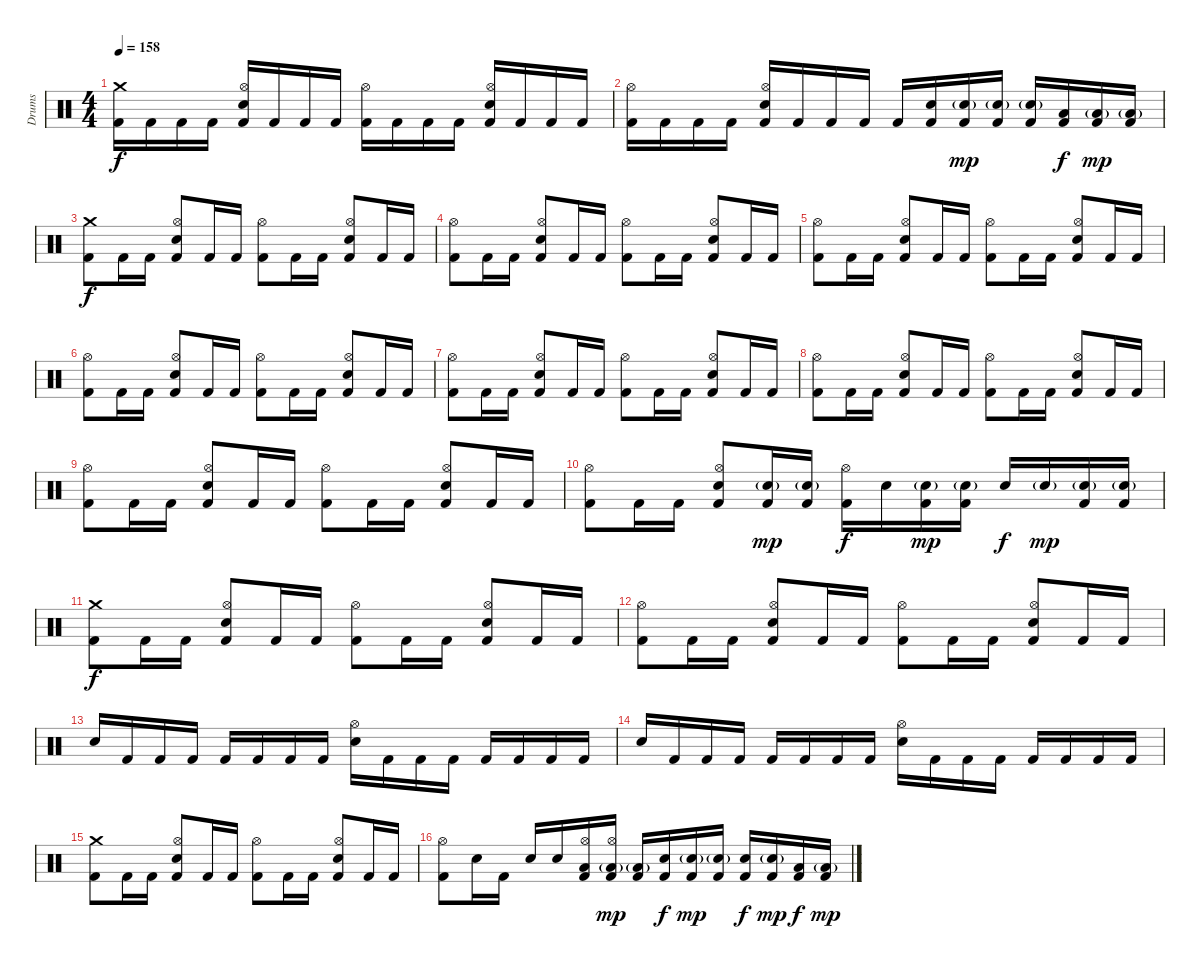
\track ("Drums" "Drums") {instrument percussion}
\staff {score}
\articulation defaults
\ts (4 4)
\tempo 158
\clef neutral
\ks c
("Crash medium (hit)" "Kick (hit) 2").16{dy f} "Kick (hit) 2".16 "Kick (hit) 2".16 "Kick (hit) 2".16 ("Hi-Hat (open)" "Electric Snare (hit)" "Kick (hit) 2").16 "Kick (hit) 2".16 "Kick (hit) 2".16 "Kick (hit) 2".16 ("Hi-Hat (open)" "Kick (hit) 2").16 "Kick (hit) 2".16 "Kick (hit) 2".16 "Kick (hit) 2".16 ("Hi-Hat (open)" "Electric Snare (hit)" "Kick (hit) 2").16 "Kick (hit) 2".16 "Kick (hit) 2".16 "Kick (hit) 2".16 |
\section ("" "")
("Hi-Hat (open)" "Kick (hit) 2").16 "Kick (hit) 2".16 "Kick (hit) 2".16 "Kick (hit) 2".16 ("Hi-Hat (open)" "Electric Snare (hit)" "Kick (hit) 2").16 "Kick (hit) 2".16 "Kick (hit) 2".16 "Kick (hit) 2".16 "Kick (hit) 2".16 ("Electric Snare (hit)" "Kick (hit) 2").16 ("Electric Snare (hit)"{g} "Kick (hit) 2").16{dy mp} ("Electric Snare (hit)"{g} "Kick (hit) 2").16 ("Electric Snare (hit)"{g} "Kick (hit) 2").16 ("Low Tom (hit)" "Kick (hit) 2").16{dy f} ("Low Tom (hit)"{g} "Kick (hit) 2").16{dy mp} ("Low Tom (hit)"{g} "Kick (hit) 2").16 |
("Crash medium (hit)" "Kick (hit) 2").8{dy f} "Kick (hit) 2".16 "Kick (hit) 2".16 ("Hi-Hat (open)" "Electric Snare (hit)" "Kick (hit) 2").8 "Kick (hit) 2".16 "Kick (hit) 2".16 ("Hi-Hat (open)" "Kick (hit) 2").8 "Kick (hit) 2".16 "Kick (hit) 2".16 ("Hi-Hat (open)" "Electric Snare (hit)" "Kick (hit) 2").8 "Kick (hit) 2".16 "Kick (hit) 2".16 |
("Hi-Hat (open)" "Kick (hit) 2").8 "Kick (hit) 2".16 "Kick (hit) 2".16 ("Hi-Hat (open)" "Electric Snare (hit)" "Kick (hit) 2").8 "Kick (hit) 2".16 "Kick (hit) 2".16 ("Hi-Hat (open)" "Kick (hit) 2").8 "Kick (hit) 2".16 "Kick (hit) 2".16 ("Hi-Hat (open)" "Electric Snare (hit)" "Kick (hit) 2").8 "Kick (hit) 2".16 "Kick (hit) 2".16 |
("Hi-Hat (open)" "Kick (hit) 2").8 "Kick (hit) 2".16 "Kick (hit) 2".16 ("Hi-Hat (open)" "Electric Snare (hit)" "Kick (hit) 2").8 "Kick (hit) 2".16 "Kick (hit) 2".16 ("Hi-Hat (open)" "Kick (hit) 2").8 "Kick (hit) 2".16 "Kick (hit) 2".16 ("Hi-Hat (open)" "Electric Snare (hit)" "Kick (hit) 2").8 "Kick (hit) 2".16 "Kick (hit) 2".16 |
("Hi-Hat (open)" "Kick (hit) 2").8 "Kick (hit) 2".16 "Kick (hit) 2".16 ("Hi-Hat (open)" "Electric Snare (hit)" "Kick (hit) 2").8 "Kick (hit) 2".16 "Kick (hit) 2".16 ("Hi-Hat (open)" "Kick (hit) 2").8 "Kick (hit) 2".16 "Kick (hit) 2".16 ("Hi-Hat (open)" "Electric Snare (hit)" "Kick (hit) 2").8 "Kick (hit) 2".16 "Kick (hit) 2".16 |
("Hi-Hat (open)" "Kick (hit) 2").8 "Kick (hit) 2".16 "Kick (hit) 2".16 ("Hi-Hat (open)" "Electric Snare (hit)" "Kick (hit) 2").8 "Kick (hit) 2".16 "Kick (hit) 2".16 ("Hi-Hat (open)" "Kick (hit) 2").8 "Kick (hit) 2".16 "Kick (hit) 2".16 ("Hi-Hat (open)" "Electric Snare (hit)" "Kick (hit) 2").8 "Kick (hit) 2".16 "Kick (hit) 2".16 |
("Hi-Hat (open)" "Kick (hit) 2").8 "Kick (hit) 2".16 "Kick (hit) 2".16 ("Hi-Hat (open)" "Electric Snare (hit)" "Kick (hit) 2").8 "Kick (hit) 2".16 "Kick (hit) 2".16 ("Hi-Hat (open)" "Kick (hit) 2").8 "Kick (hit) 2".16 "Kick (hit) 2".16 ("Hi-Hat (open)" "Electric Snare (hit)" "Kick (hit) 2").8 "Kick (hit) 2".16 "Kick (hit) 2".16 |
("Hi-Hat (open)" "Kick (hit) 2").8 "Kick (hit) 2".16 "Kick (hit) 2".16 ("Hi-Hat (open)" "Electric Snare (hit)" "Kick (hit) 2").8 "Kick (hit) 2".16 "Kick (hit) 2".16 ("Hi-Hat (open)" "Kick (hit) 2").8 "Kick (hit) 2".16 "Kick (hit) 2".16 ("Hi-Hat (open)" "Electric Snare (hit)" "Kick (hit) 2").8 "Kick (hit) 2".16 "Kick (hit) 2".16 |
("Hi-Hat (open)" "Kick (hit) 2").8 "Kick (hit) 2".16 "Kick (hit) 2".16 ("Hi-Hat (open)" "Electric Snare (hit)" "Kick (hit) 2").8 ("Electric Snare (hit)"{g} "Kick (hit) 2").16{dy mp} ("Electric Snare (hit)"{g} "Kick (hit) 2").16 ("Hi-Hat (open)" "Kick (hit) 2").16{dy f} "Electric Snare (hit)".16 ("Electric Snare (hit)"{g} "Kick (hit) 2").16{dy mp} ("Electric Snare (hit)"{g} "Kick (hit) 2").16 "Electric Snare (hit)".16{dy f} "Electric Snare (hit)"{g}.16{dy mp} ("Electric Snare (hit)"{g} "Kick (hit) 2").16 ("Electric Snare (hit)"{g} "Kick (hit) 2").16 |
\section ("" "")
("Crash medium (hit)" "Kick (hit) 2").8{dy f} "Kick (hit) 2".16 "Kick (hit) 2".16 ("Hi-Hat (open)" "Electric Snare (hit)" "Kick (hit) 2").8 "Kick (hit) 2".16 "Kick (hit) 2".16 ("Hi-Hat (open)" "Kick (hit) 2").8 "Kick (hit) 2".16 "Kick (hit) 2".16 ("Hi-Hat (open)" "Electric Snare (hit)" "Kick (hit) 2").8 "Kick (hit) 2".16 "Kick (hit) 2".16 |
("Hi-Hat (open)" "Kick (hit) 2").8 "Kick (hit) 2".16 "Kick (hit) 2".16 ("Hi-Hat (open)" "Electric Snare (hit)" "Kick (hit) 2").8 "Kick (hit) 2".16 "Kick (hit) 2".16 ("Hi-Hat (open)" "Kick (hit) 2").8 "Kick (hit) 2".16 "Kick (hit) 2".16 ("Hi-Hat (open)" "Electric Snare (hit)" "Kick (hit) 2").8 "Kick (hit) 2".16 "Kick (hit) 2".16 |
"Electric Snare (hit)".16 "Kick (hit) 2".16 "Kick (hit) 2".16 "Kick (hit) 2".16 "Kick (hit) 2".16 "Kick (hit) 2".16 "Kick (hit) 2".16 "Kick (hit) 2".16 ("Hi-Hat (open)" "Electric Snare (hit)").16 "Kick (hit) 2".16 "Kick (hit) 2".16 "Kick (hit) 2".16 "Kick (hit) 2".16 "Kick (hit) 2".16 "Kick (hit) 2".16 "Kick (hit) 2".16 |
"Electric Snare (hit)".16 "Kick (hit) 2".16 "Kick (hit) 2".16 "Kick (hit) 2".16 "Kick (hit) 2".16 "Kick (hit) 2".16 "Kick (hit) 2".16 "Kick (hit) 2".16 ("Hi-Hat (open)" "Electric Snare (hit)").16 "Kick (hit) 2".16 "Kick (hit) 2".16 "Kick (hit) 2".16 "Kick (hit) 2".16 "Kick (hit) 2".16 "Kick (hit) 2".16 "Kick (hit) 2".16 |
("Crash medium (hit)" "Kick (hit) 2").8 "Kick (hit) 2".16 "Kick (hit) 2".16 ("Hi-Hat (open)" "Electric Snare (hit)" "Kick (hit) 2").8 "Kick (hit) 2".16 "Kick (hit) 2".16 ("Hi-Hat (open)" "Kick (hit) 2").8 "Kick (hit) 2".16 "Kick (hit) 2".16 ("Hi-Hat (open)" "Electric Snare (hit)" "Kick (hit) 2").8 "Kick (hit) 2".16 "Kick (hit) 2".16 |
("Hi-Hat (open)" "Kick (hit) 2").8 "Electric Snare (hit)".16 "Kick (hit) 2".16 "Electric Snare (hit)".16 "Electric Snare (hit)".16 ("Hi-Hat (open)" "Low Tom (hit)" "Kick (hit) 2").16 ("Hi-Hat (open)" "Low Tom (hit)"{g} "Kick (hit) 2").16{dy mp} ("Low Tom (hit)"{g} "Kick (hit) 2").16 ("Electric Snare (hit)" "Kick (hit) 2").16{dy f} ("Electric Snare (hit)"{g} "Kick (hit) 2").16{dy mp} ("Electric Snare (hit)"{g} "Kick (hit) 2").16 ("Electric Snare (hit)" "Kick (hit) 2").16{dy f} ("Electric Snare (hit)"{g} "Kick (hit) 2").16{dy mp} ("Low Tom (hit)" "Kick (hit) 2").16{dy f} ("Low Tom (hit)"{g} "Kick (hit) 2").16{dy mp}
